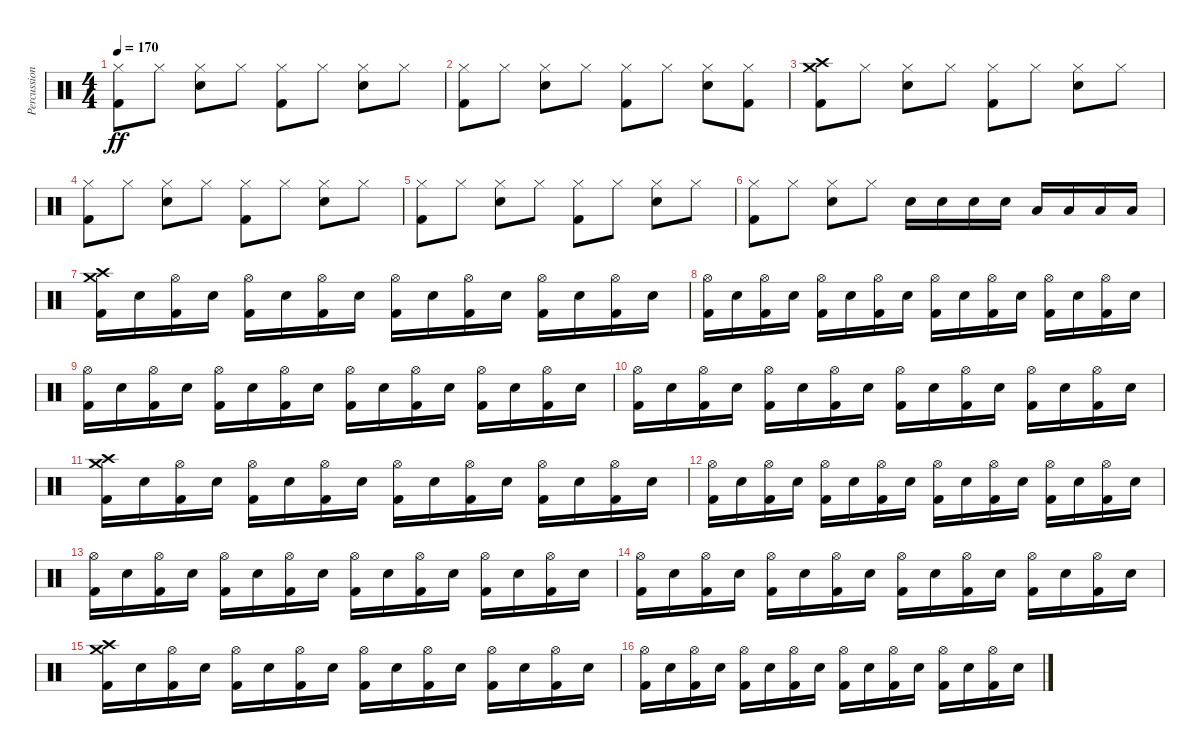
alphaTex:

\track ("Percussion" "Percussion") {instrument percussion}
\staff {score}
\articulation defaults
\ts (4 4)
\tempo 170
\clef neutral
\ks c
("Kick (hit) 2" "Hi-Hat (closed)").8{dy ff} "Hi-Hat (closed)".8 ("Electric Snare (hit)" "Hi-Hat (closed)").8 "Hi-Hat (closed)".8 ("Kick (hit) 2" "Hi-Hat (closed)").8 "Hi-Hat (closed)".8 ("Electric Snare (hit)" "Hi-Hat (closed)").8 "Hi-Hat (closed)".8 |
("Kick (hit) 2" "Hi-Hat (closed)").8 "Hi-Hat (closed)".8 ("Electric Snare (hit)" "Hi-Hat (closed)").8 "Hi-Hat (closed)".8 ("Kick (hit) 2" "Hi-Hat (closed)").8 "Hi-Hat (closed)".8 ("Electric Snare (hit)" "Hi-Hat (closed)").8 ("Kick (hit) 2" "Hi-Hat (closed)").8 |
("Kick (hit) 2" "Crash medium (hit)" "Crash high (hit)").8 "Hi-Hat (closed)".8 ("Electric Snare (hit)" "Hi-Hat (closed)").8 "Hi-Hat (closed)".8 ("Kick (hit) 2" "Hi-Hat (closed)").8 "Hi-Hat (closed)".8 ("Electric Snare (hit)" "Hi-Hat (closed)").8 "Hi-Hat (closed)".8 |
("Kick (hit) 2" "Hi-Hat (closed)").8 "Hi-Hat (closed)".8 ("Electric Snare (hit)" "Hi-Hat (closed)").8 "Hi-Hat (closed)".8 ("Kick (hit) 2" "Hi-Hat (closed)").8 "Hi-Hat (closed)".8 ("Electric Snare (hit)" "Hi-Hat (closed)").8 "Hi-Hat (closed)".8 |
("Kick (hit) 2" "Hi-Hat (closed)").8 "Hi-Hat (closed)".8 ("Electric Snare (hit)" "Hi-Hat (closed)").8 "Hi-Hat (closed)".8 ("Kick (hit) 2" "Hi-Hat (closed)").8 "Hi-Hat (closed)".8 ("Electric Snare (hit)" "Hi-Hat (closed)").8 "Hi-Hat (closed)".8 |
("Kick (hit) 2" "Hi-Hat (closed)").8 "Hi-Hat (closed)".8 ("Electric Snare (hit)" "Hi-Hat (closed)").8 "Hi-Hat (closed)".8 "Electric Snare (hit)".16 "Electric Snare (hit)".16 "Electric Snare (hit)".16 "Electric Snare (hit)".16 "Low Tom (hit)".16 "Low Tom (hit)".16 "Low Tom (hit)".16 "Low Tom (hit)".16 |
("Kick (hit) 2" "Crash medium (hit)" "Crash high (hit)").16 "Electric Snare (hit)".16 ("Kick (hit) 2" "Hi-Hat (open)").16 "Electric Snare (hit)".16 ("Kick (hit) 2" "Hi-Hat (open)").16 "Electric Snare (hit)".16 ("Kick (hit) 2" "Hi-Hat (open)").16 "Electric Snare (hit)".16 ("Kick (hit) 2" "Hi-Hat (open)").16 "Electric Snare (hit)".16 ("Kick (hit) 2" "Hi-Hat (open)").16 "Electric Snare (hit)".16 ("Kick (hit) 2" "Hi-Hat (open)").16 "Electric Snare (hit)".16 ("Kick (hit) 2" "Hi-Hat (open)").16 "Electric Snare (hit)".16 |
("Kick (hit) 2" "Hi-Hat (open)").16 "Electric Snare (hit)".16 ("Kick (hit) 2" "Hi-Hat (open)").16 "Electric Snare (hit)".16 ("Kick (hit) 2" "Hi-Hat (open)").16 "Electric Snare (hit)".16 ("Kick (hit) 2" "Hi-Hat (open)").16 "Electric Snare (hit)".16 ("Kick (hit) 2" "Hi-Hat (open)").16 "Electric Snare (hit)".16 ("Kick (hit) 2" "Hi-Hat (open)").16 "Electric Snare (hit)".16 ("Kick (hit) 2" "Hi-Hat (open)").16 "Electric Snare (hit)".16 ("Kick (hit) 2" "Hi-Hat (open)").16 "Electric Snare (hit)".16 |
("Kick (hit) 2" "Hi-Hat (open)").16 "Electric Snare (hit)".16 ("Kick (hit) 2" "Hi-Hat (open)").16 "Electric Snare (hit)".16 ("Kick (hit) 2" "Hi-Hat (open)").16 "Electric Snare (hit)".16 ("Kick (hit) 2" "Hi-Hat (open)").16 "Electric Snare (hit)".16 ("Kick (hit) 2" "Hi-Hat (open)").16 "Electric Snare (hit)".16 ("Kick (hit) 2" "Hi-Hat (open)").16 "Electric Snare (hit)".16 ("Kick (hit) 2" "Hi-Hat (open)").16 "Electric Snare (hit)".16 ("Kick (hit) 2" "Hi-Hat (open)").16 "Electric Snare (hit)".16 |
("Kick (hit) 2" "Hi-Hat (open)").16 "Electric Snare (hit)".16 ("Kick (hit) 2" "Hi-Hat (open)").16 "Electric Snare (hit)".16 ("Kick (hit) 2" "Hi-Hat (open)").16 "Electric Snare (hit)".16 ("Kick (hit) 2" "Hi-Hat (open)").16 "Electric Snare (hit)".16 ("Kick (hit) 2" "Hi-Hat (open)").16 "Electric Snare (hit)".16 ("Kick (hit) 2" "Hi-Hat (open)").16 "Electric Snare (hit)".16 ("Kick (hit) 2" "Hi-Hat (open)").16 "Electric Snare (hit)".16 ("Kick (hit) 2" "Hi-Hat (open)").16 "Electric Snare (hit)".16 |
("Kick (hit) 2" "Crash high (hit)" "Crash medium (hit)").16 "Electric Snare (hit)".16 ("Kick (hit) 2" "Hi-Hat (open)").16 "Electric Snare (hit)".16 ("Kick (hit) 2" "Hi-Hat (open)").16 "Electric Snare (hit)".16 ("Kick (hit) 2" "Hi-Hat (open)").16 "Electric Snare (hit)".16 ("Kick (hit) 2" "Hi-Hat (open)").16 "Electric Snare (hit)".16 ("Kick (hit) 2" "Hi-Hat (open)").16 "Electric Snare (hit)".16 ("Kick (hit) 2" "Hi-Hat (open)").16 "Electric Snare (hit)".16 ("Kick (hit) 2" "Hi-Hat (open)").16 "Electric Snare (hit)".16 |
("Kick (hit) 2" "Hi-Hat (open)").16 "Electric Snare (hit)".16 ("Kick (hit) 2" "Hi-Hat (open)").16 "Electric Snare (hit)".16 ("Kick (hit) 2" "Hi-Hat (open)").16 "Electric Snare (hit)".16 ("Kick (hit) 2" "Hi-Hat (open)").16 "Electric Snare (hit)".16 ("Kick (hit) 2" "Hi-Hat (open)").16 "Electric Snare (hit)".16 ("Kick (hit) 2" "Hi-Hat (open)").16 "Electric Snare (hit)".16 ("Kick (hit) 2" "Hi-Hat (open)").16 "Electric Snare (hit)".16 ("Kick (hit) 2" "Hi-Hat (open)").16 "Electric Snare (hit)".16 |
("Kick (hit) 2" "Hi-Hat (open)").16 "Electric Snare (hit)".16 ("Kick (hit) 2" "Hi-Hat (open)").16 "Electric Snare (hit)".16 ("Kick (hit) 2" "Hi-Hat (open)").16 "Electric Snare (hit)".16 ("Kick (hit) 2" "Hi-Hat (open)").16 "Electric Snare (hit)".16 ("Kick (hit) 2" "Hi-Hat (open)").16 "Electric Snare (hit)".16 ("Kick (hit) 2" "Hi-Hat (open)").16 "Electric Snare (hit)".16 ("Kick (hit) 2" "Hi-Hat (open)").16 "Electric Snare (hit)".16 ("Kick (hit) 2" "Hi-Hat (open)").16 "Electric Snare (hit)".16 |
("Kick (hit) 2" "Hi-Hat (open)").16 "Electric Snare (hit)".16 ("Kick (hit) 2" "Hi-Hat (open)").16 "Electric Snare (hit)".16 ("Kick (hit) 2" "Hi-Hat (open)").16 "Electric Snare (hit)".16 ("Kick (hit) 2" "Hi-Hat (open)").16 "Electric Snare (hit)".16 ("Kick (hit) 2" "Hi-Hat (open)").16 "Electric Snare (hit)".16 ("Kick (hit) 2" "Hi-Hat (open)").16 "Electric Snare (hit)".16 ("Kick (hit) 2" "Hi-Hat (open)").16 "Electric Snare (hit)".16 ("Kick (hit) 2" "Hi-Hat (open)").16 "Electric Snare (hit)".16 |
("Kick (hit) 2" "Crash medium (hit)" "Crash high (hit)").16 "Electric Snare (hit)".16 ("Kick (hit) 2" "Hi-Hat (open)").16 "Electric Snare (hit)".16 ("Kick (hit) 2" "Hi-Hat (open)").16 "Electric Snare (hit)".16 ("Kick (hit) 2" "Hi-Hat (open)").16 "Electric Snare (hit)".16 ("Kick (hit) 2" "Hi-Hat (open)").16 "Electric Snare (hit)".16 ("Kick (hit) 2" "Hi-Hat (open)").16 "Electric Snare (hit)".16 ("Kick (hit) 2" "Hi-Hat (open)").16 "Electric Snare (hit)".16 ("Kick (hit) 2" "Hi-Hat (open)").16 "Electric Snare (hit)".16 |
("Kick (hit) 2" "Hi-Hat (open)").16 "Electric Snare (hit)".16 ("Kick (hit) 2" "Hi-Hat (open)").16 "Electric Snare (hit)".16 ("Kick (hit) 2" "Hi-Hat (open)").16 "Electric Snare (hit)".16 ("Kick (hit) 2" "Hi-Hat (open)").16 "Electric Snare (hit)".16 ("Kick (hit) 2" "Hi-Hat (open)").16 "Electric Snare (hit)".16 ("Kick (hit) 2" "Hi-Hat (open)").16 "Electric Snare (hit)".16 ("Kick (hit) 2" "Hi-Hat (open)").16 "Electric Snare (hit)".16 ("Kick (hit) 2" "Hi-Hat (open)").16 "Electric Snare (hit)".16
